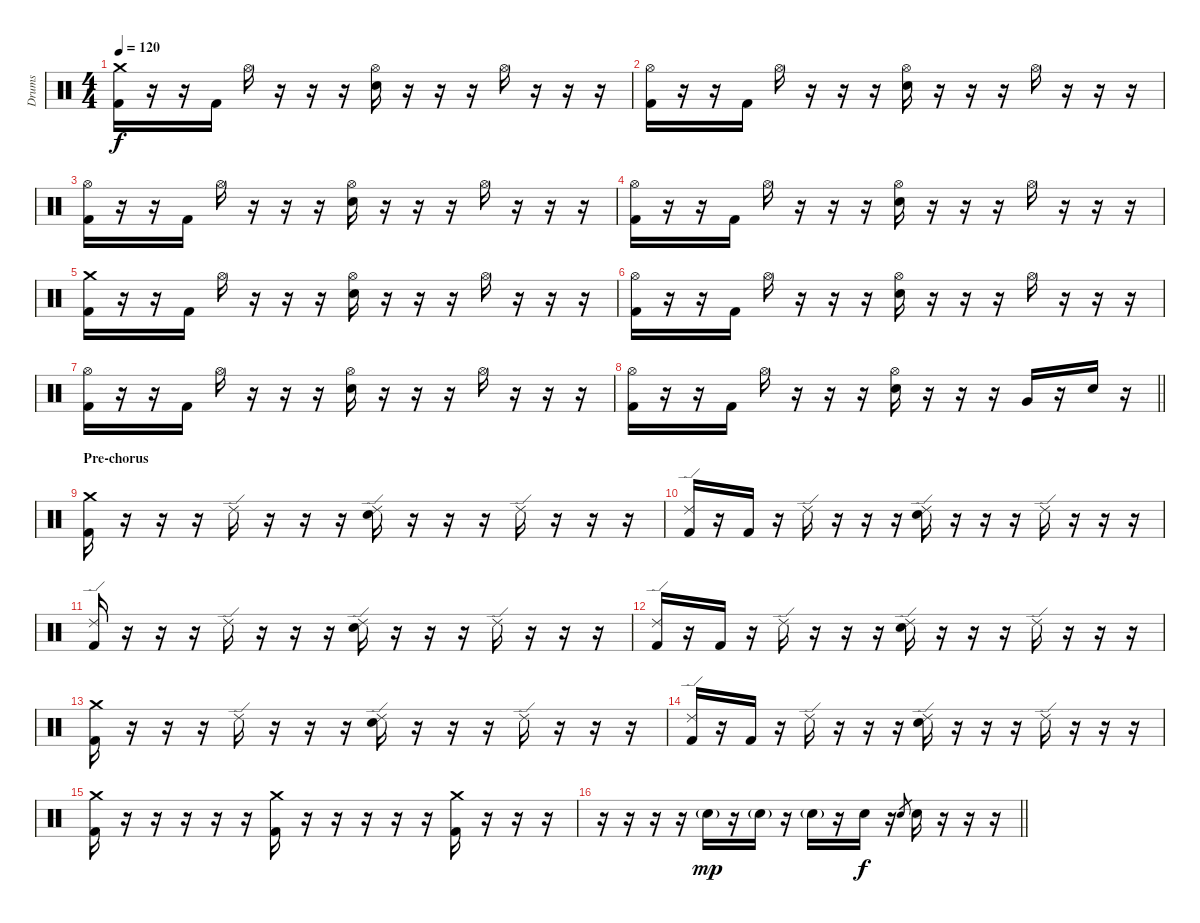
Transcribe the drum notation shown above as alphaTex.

\track ("Drums" "Drums") {instrument percussion}
\staff {score}
\articulation defaults
\ts (4 4)
\section ("" "")
\tempo 120
\clef neutral
\ks c
("Crash medium (hit)" "Kick (hit) 2").16{dy f} r.16 r.16 "Kick (hit) 2".16 "Hi-Hat (open)".16 r.16 r.16 r.16 ("Hi-Hat (open)" "Electric Snare (hit)").16 r.16 r.16 r.16 "Hi-Hat (open)".16 r.16 r.16 r.16 |
("Hi-Hat (open)" "Kick (hit) 2").16 r.16 r.16 "Kick (hit) 2".16 "Hi-Hat (open)".16 r.16 r.16 r.16 ("Hi-Hat (open)" "Electric Snare (hit)").16 r.16 r.16 r.16 "Hi-Hat (open)".16 r.16 r.16 r.16 |
("Hi-Hat (open)" "Kick (hit) 2").16 r.16 r.16 "Kick (hit) 2".16 "Hi-Hat (open)".16 r.16 r.16 r.16 ("Hi-Hat (open)" "Electric Snare (hit)").16 r.16 r.16 r.16 "Hi-Hat (open)".16 r.16 r.16 r.16 |
("Hi-Hat (open)" "Kick (hit) 2").16 r.16 r.16 "Kick (hit) 2".16 "Hi-Hat (open)".16 r.16 r.16 r.16 ("Hi-Hat (open)" "Electric Snare (hit)").16 r.16 r.16 r.16 "Hi-Hat (open)".16 r.16 r.16 r.16 |
("Crash medium (hit)" "Kick (hit) 2").16 r.16 r.16 "Kick (hit) 2".16 "Hi-Hat (open)".16 r.16 r.16 r.16 ("Hi-Hat (open)" "Electric Snare (hit)").16 r.16 r.16 r.16 "Hi-Hat (open)".16 r.16 r.16 r.16 |
("Hi-Hat (open)" "Kick (hit) 2").16 r.16 r.16 "Kick (hit) 2".16 "Hi-Hat (open)".16 r.16 r.16 r.16 ("Hi-Hat (open)" "Electric Snare (hit)").16 r.16 r.16 r.16 "Hi-Hat (open)".16 r.16 r.16 r.16 |
("Hi-Hat (open)" "Kick (hit) 2").16 r.16 r.16 "Kick (hit) 2".16 "Hi-Hat (open)".16 r.16 r.16 r.16 ("Hi-Hat (open)" "Electric Snare (hit)").16 r.16 r.16 r.16 "Hi-Hat (open)".16 r.16 r.16 r.16 |
\barLineRight lightlight
("Hi-Hat (open)" "Kick (hit) 2").16 r.16 r.16 "Kick (hit) 2".16 "Hi-Hat (open)".16 r.16 r.16 r.16 ("Hi-Hat (open)" "Electric Snare (hit)").16 r.16 r.16 r.16 "Very Low Tom (hit)".16 r.16 "Electric Snare (hit)".16 r.16 |
\section ("" "Pre-chorus")
("Crash medium (hit)" "Kick (hit) 2").16 r.16 r.16 r.16 "Ride (edge) 2".16 r.16 r.16 r.16 ("Ride (edge) 2" "Electric Snare (hit)").16 r.16 r.16 r.16 "Ride (edge) 2".16 r.16 r.16 r.16 |
("Ride (edge) 2" "Kick (hit) 2").16 r.16 "Kick (hit) 2".16 r.16 "Ride (edge) 2".16 r.16 r.16 r.16 ("Ride (edge) 2" "Electric Snare (hit)").16 r.16 r.16 r.16 "Ride (edge) 2".16 r.16 r.16 r.16 |
("Ride (edge) 2" "Kick (hit) 2").16 r.16 r.16 r.16 "Ride (edge) 2".16 r.16 r.16 r.16 ("Ride (edge) 2" "Electric Snare (hit)").16 r.16 r.16 r.16 "Ride (edge) 2".16 r.16 r.16 r.16 |
("Ride (edge) 2" "Kick (hit) 2").16 r.16 "Kick (hit) 2".16 r.16 "Ride (edge) 2".16 r.16 r.16 r.16 ("Ride (edge) 2" "Electric Snare (hit)").16 r.16 r.16 r.16 "Ride (edge) 2".16 r.16 r.16 r.16 |
("Crash medium (hit)" "Kick (hit) 2").16 r.16 r.16 r.16 "Ride (edge) 2".16 r.16 r.16 r.16 ("Ride (edge) 2" "Electric Snare (hit)").16 r.16 r.16 r.16 "Ride (edge) 2".16 r.16 r.16 r.16 |
("Ride (edge) 2" "Kick (hit) 2").16 r.16 "Kick (hit) 2".16 r.16 "Ride (edge) 2".16 r.16 r.16 r.16 ("Ride (edge) 2" "Electric Snare (hit)").16 r.16 r.16 r.16 "Ride (edge) 2".16 r.16 r.16 r.16 |
("Crash medium (hit)" "Kick (hit) 2").16 r.16 r.16 r.16 r.16 r.16 ("Crash medium (hit)" "Kick (hit) 2").16 r.16 r.16 r.16 r.16 r.16 ("Crash medium (hit)" "Kick (hit) 2").16 r.16 r.16 r.16 |
\barLineRight lightlight
r.16 r.16 r.16 r.16 "Electric Snare (hit)"{g}.16{dy mp} r.16 "Electric Snare (hit)"{g}.16 r.16 "Electric Snare (hit)"{g}.16 r.16 "Electric Snare (hit)".16{dy f} r.16 "Electric Snare (hit)".8{gr} "Electric Snare (hit)".16 r.16 r.16 r.16
